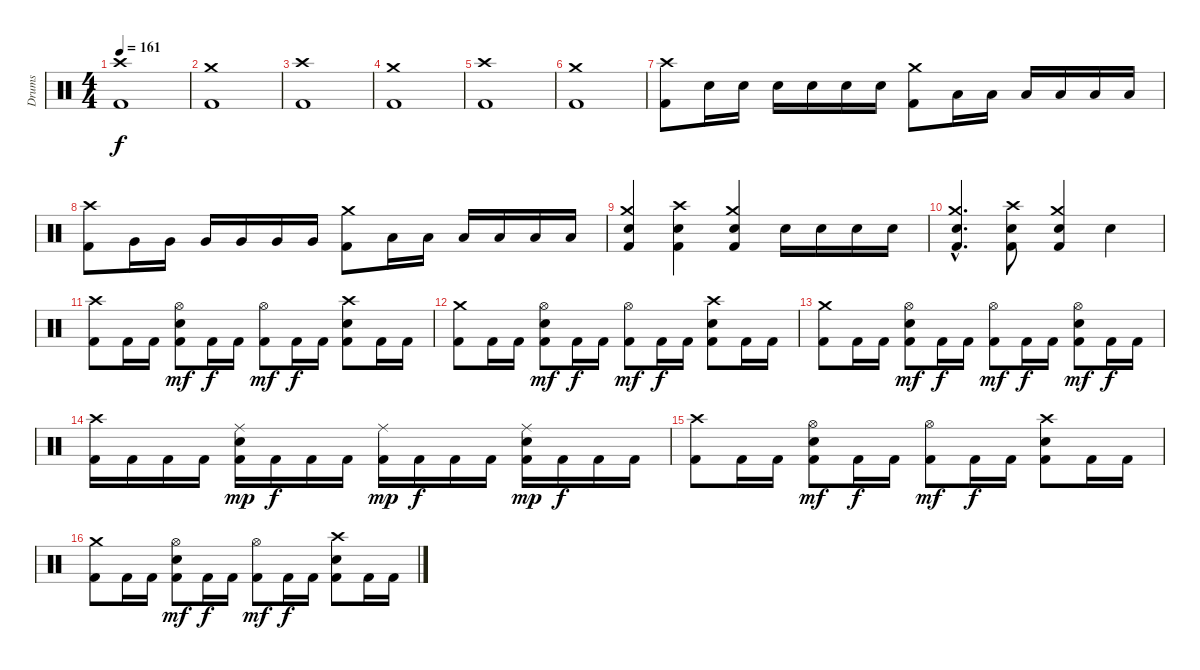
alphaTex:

\track ("Drums" "Drums") {instrument percussion}
\staff {score}
\articulation defaults
\ts (4 4)
\tempo 161
\clef neutral
\ks c
("Crash high (hit)" "Kick (hit) 2").1{dy f} |
("Crash medium (hit)" "Kick (hit) 2").1 |
("Crash high (hit)" "Kick (hit) 2").1 |
("Crash medium (hit)" "Kick (hit) 2").1 |
("Crash high (hit)" "Kick (hit) 2").1 |
("Crash medium (hit)" "Kick (hit) 2").1 |
("Crash high (hit)" "Kick (hit) 2").8 "Electric Snare (hit)".16 "Electric Snare (hit)".16 "Electric Snare (hit)".16 "Electric Snare (hit)".16 "Electric Snare (hit)".16 "Electric Snare (hit)".16 ("Crash medium (hit)" "Kick (hit) 2").8 "Low Tom (hit)".16 "Low Tom (hit)".16 "Low Tom (hit)".16 "Low Tom (hit)".16 "Low Tom (hit)".16 "Low Tom (hit)".16 |
("Crash high (hit)" "Kick (hit) 2").8 "Very Low Tom (hit)".16 "Very Low Tom (hit)".16 "Very Low Tom (hit)".16 "Very Low Tom (hit)".16 "Very Low Tom (hit)".16 "Very Low Tom (hit)".16 ("Crash medium (hit)" "Kick (hit) 2").8 "Low Floor Tom (hit)".16 "Low Floor Tom (hit)".16 "Low Floor Tom (hit)".16 "Low Floor Tom (hit)".16 "Low Floor Tom (hit)".16 "Low Floor Tom (hit)".16 |
("Crash medium (hit)" "Electric Snare (hit)" "Kick (hit) 2").4 ("Crash high (hit)" "Electric Snare (hit)" "Kick (hit) 2").4 ("Crash medium (hit)" "Electric Snare (hit)" "Kick (hit) 2").4 "Electric Snare (hit)".16 "Electric Snare (hit)".16 "Electric Snare (hit)".16 "Electric Snare (hit)".16 |
("Crash medium (hit)"{hac} "Electric Snare (hit)"{hac} "Kick (hit) 2"{hac}).4{d} ("Crash high (hit)" "Electric Snare (hit)" "Kick (hit) 2").8 ("Crash medium (hit)" "Electric Snare (hit)" "Kick (hit) 2").4 "Electric Snare (hit)".4 |
("Crash high (hit)" "Kick (hit) 2").8 "Kick (hit) 2".16 "Kick (hit) 2".16 ("Hi-Hat (open)" "Electric Snare (hit)" "Kick (hit) 2").8{dy mf} "Kick (hit) 2".16{dy f} "Kick (hit) 2".16 ("Hi-Hat (open)" "Kick (hit) 2").8{dy mf} "Kick (hit) 2".16{dy f} "Kick (hit) 2".16 ("Crash high (hit)" "Electric Snare (hit)" "Kick (hit) 2").8 "Kick (hit) 2".16 "Kick (hit) 2".16 |
("Crash medium (hit)" "Kick (hit) 2").8 "Kick (hit) 2".16 "Kick (hit) 2".16 ("Hi-Hat (open)" "Electric Snare (hit)" "Kick (hit) 2").8{dy mf} "Kick (hit) 2".16{dy f} "Kick (hit) 2".16 ("Hi-Hat (open)" "Kick (hit) 2").8{dy mf} "Kick (hit) 2".16{dy f} "Kick (hit) 2".16 ("Crash high (hit)" "Electric Snare (hit)" "Kick (hit) 2").8 "Kick (hit) 2".16 "Kick (hit) 2".16 |
("Crash medium (hit)" "Kick (hit) 2").8 "Kick (hit) 2".16 "Kick (hit) 2".16 ("Hi-Hat (open)" "Electric Snare (hit)" "Kick (hit) 2").8{dy mf} "Kick (hit) 2".16{dy f} "Kick (hit) 2".16 ("Hi-Hat (open)" "Kick (hit) 2").8{dy mf} "Kick (hit) 2".16{dy f} "Kick (hit) 2".16 ("Hi-Hat (open)" "Electric Snare (hit)" "Kick (hit) 2").8{dy mf} "Kick (hit) 2".16{dy f} "Kick (hit) 2".16 |
("Crash high (hit)" "Kick (hit) 2").16 "Kick (hit) 2".16 "Kick (hit) 2".16 "Kick (hit) 2".16 ("Ride (middle)" "Electric Snare (hit)" "Kick (hit) 2").16{dy mp} "Kick (hit) 2".16{dy f} "Kick (hit) 2".16 "Kick (hit) 2".16 ("Ride (middle)" "Kick (hit) 2").16{dy mp} "Kick (hit) 2".16{dy f} "Kick (hit) 2".16 "Kick (hit) 2".16 ("Ride (middle)" "Electric Snare (hit)" "Kick (hit) 2").16{dy mp} "Kick (hit) 2".16{dy f} "Kick (hit) 2".16 "Kick (hit) 2".16 |
("Crash high (hit)" "Kick (hit) 2").8 "Kick (hit) 2".16 "Kick (hit) 2".16 ("Hi-Hat (open)" "Electric Snare (hit)" "Kick (hit) 2").8{dy mf} "Kick (hit) 2".16{dy f} "Kick (hit) 2".16 ("Hi-Hat (open)" "Kick (hit) 2").8{dy mf} "Kick (hit) 2".16{dy f} "Kick (hit) 2".16 ("Crash high (hit)" "Electric Snare (hit)" "Kick (hit) 2").8 "Kick (hit) 2".16 "Kick (hit) 2".16 |
("Crash medium (hit)" "Kick (hit) 2").8 "Kick (hit) 2".16 "Kick (hit) 2".16 ("Hi-Hat (open)" "Electric Snare (hit)" "Kick (hit) 2").8{dy mf} "Kick (hit) 2".16{dy f} "Kick (hit) 2".16 ("Hi-Hat (open)" "Kick (hit) 2").8{dy mf} "Kick (hit) 2".16{dy f} "Kick (hit) 2".16 ("Crash high (hit)" "Electric Snare (hit)" "Kick (hit) 2").8 "Kick (hit) 2".16 "Kick (hit) 2".16
